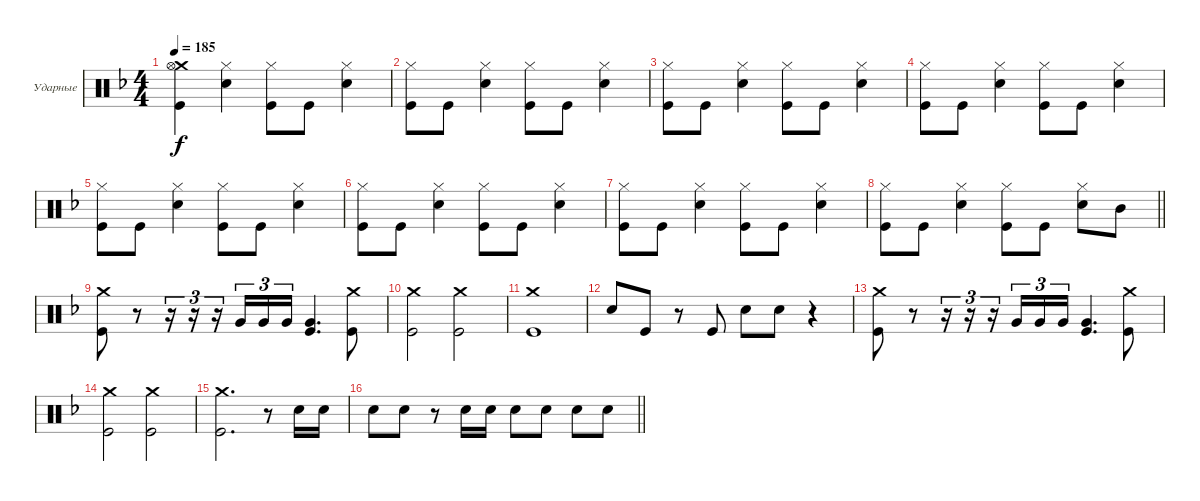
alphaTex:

\bracketExtendMode groupsimilarinstruments
\firstSystemTrackNameOrientation horizontal
\otherSystemsTrackNameOrientation horizontal
\track ("Александр Львов" "Ударные") {instrument percussion}
\staff {score}
\articulation defaults
\ts (4 4)
\tempo 185
\clef neutral
\ks dminor
("Kick (hit)" "Crash medium (hit)" "Hi-Hat (open)").4{dy f} ("Snare (hit) 2" "Hi-Hat (closed)").4 ("Kick (hit)" "Hi-Hat (closed)").8 "Kick (hit)".8 ("Hi-Hat (closed)" "Snare (hit) 2").4 |
("Kick (hit)" "Hi-Hat (closed)").8 "Kick (hit)".8 ("Snare (hit) 2" "Hi-Hat (closed)").4 ("Kick (hit)" "Hi-Hat (closed)").8 "Kick (hit)".8 ("Hi-Hat (closed)" "Snare (hit) 2").4 |
("Kick (hit)" "Hi-Hat (closed)").8 "Kick (hit)".8 ("Snare (hit) 2" "Hi-Hat (closed)").4 ("Kick (hit)" "Hi-Hat (closed)").8 "Kick (hit)".8 ("Hi-Hat (closed)" "Snare (hit) 2").4 |
("Kick (hit)" "Hi-Hat (closed)").8 "Kick (hit)".8 ("Snare (hit) 2" "Hi-Hat (closed)").4 ("Kick (hit)" "Hi-Hat (closed)").8 "Kick (hit)".8 ("Hi-Hat (closed)" "Snare (hit) 2").4 |
("Kick (hit)" "Hi-Hat (closed)").8 "Kick (hit)".8 ("Snare (hit) 2" "Hi-Hat (closed)").4 ("Kick (hit)" "Hi-Hat (closed)").8 "Kick (hit)".8 ("Hi-Hat (closed)" "Snare (hit) 2").4 |
("Kick (hit)" "Hi-Hat (closed)").8 "Kick (hit)".8 ("Snare (hit) 2" "Hi-Hat (closed)").4 ("Kick (hit)" "Hi-Hat (closed)").8 "Kick (hit)".8 ("Hi-Hat (closed)" "Snare (hit) 2").4 |
("Kick (hit)" "Hi-Hat (closed)").8 "Kick (hit)".8 ("Snare (hit) 2" "Hi-Hat (closed)").4 ("Kick (hit)" "Hi-Hat (closed)").8 "Kick (hit)".8 ("Hi-Hat (closed)" "Snare (hit) 2").4 |
\barLineRight lightlight
("Kick (hit)" "Hi-Hat (closed)").8 "Kick (hit)".8 ("Snare (hit) 2" "Hi-Hat (closed)").4 ("Kick (hit)" "Hi-Hat (closed)").8 "Kick (hit)".8 ("Hi-Hat (closed)" "Snare (hit) 2").8 "Mid Tom (hit)".8 |
("Kick (hit)" "Crash medium (hit)").8 r.8 r.16{tu (3 2)} r.16{tu (3 2)} r.16{tu (3 2)} "Very Low Tom (hit)".16{tu (3 2)} "Very Low Tom (hit)".16{tu (3 2)} "Very Low Tom (hit)".16{tu (3 2)} ("Kick (hit)" "Very Low Tom (hit)").4{d} ("Kick (hit)" "Crash medium (hit)").8 |
("Kick (hit)" "Crash medium (hit)").2 ("Kick (hit)" "Crash medium (hit)").2 |
("Kick (hit)" "Crash medium (hit)").1 |
"Snare (hit) 2".8 "Kick (hit)".8 r.8 "Kick (hit)".8 "Snare (hit) 2".8 "Snare (hit) 2".8 r.4 |
("Kick (hit)" "Crash medium (hit)").8 r.8 r.16{tu (3 2)} r.16{tu (3 2)} r.16{tu (3 2)} "Very Low Tom (hit)".16{tu (3 2)} "Very Low Tom (hit)".16{tu (3 2)} "Very Low Tom (hit)".16{tu (3 2)} ("Kick (hit)" "Very Low Tom (hit)").4{d} ("Kick (hit)" "Crash medium (hit)").8 |
("Kick (hit)" "Crash medium (hit)").2 ("Kick (hit)" "Crash medium (hit)").2 |
("Kick (hit)" "Crash medium (hit)").2{d} r.8 "Snare (hit) 2".16 "Snare (hit) 2".16 |
\barLineRight lightlight "Snare (hit) 2".8 "Snare (hit) 2".8
r.8 "Snare (hit) 2".16 "Snare (hit) 2".16 "Snare (hit) 2".8 "Snare (hit) 2".8 "Snare (hit) 2".8 "Snare (hit) 2".8
